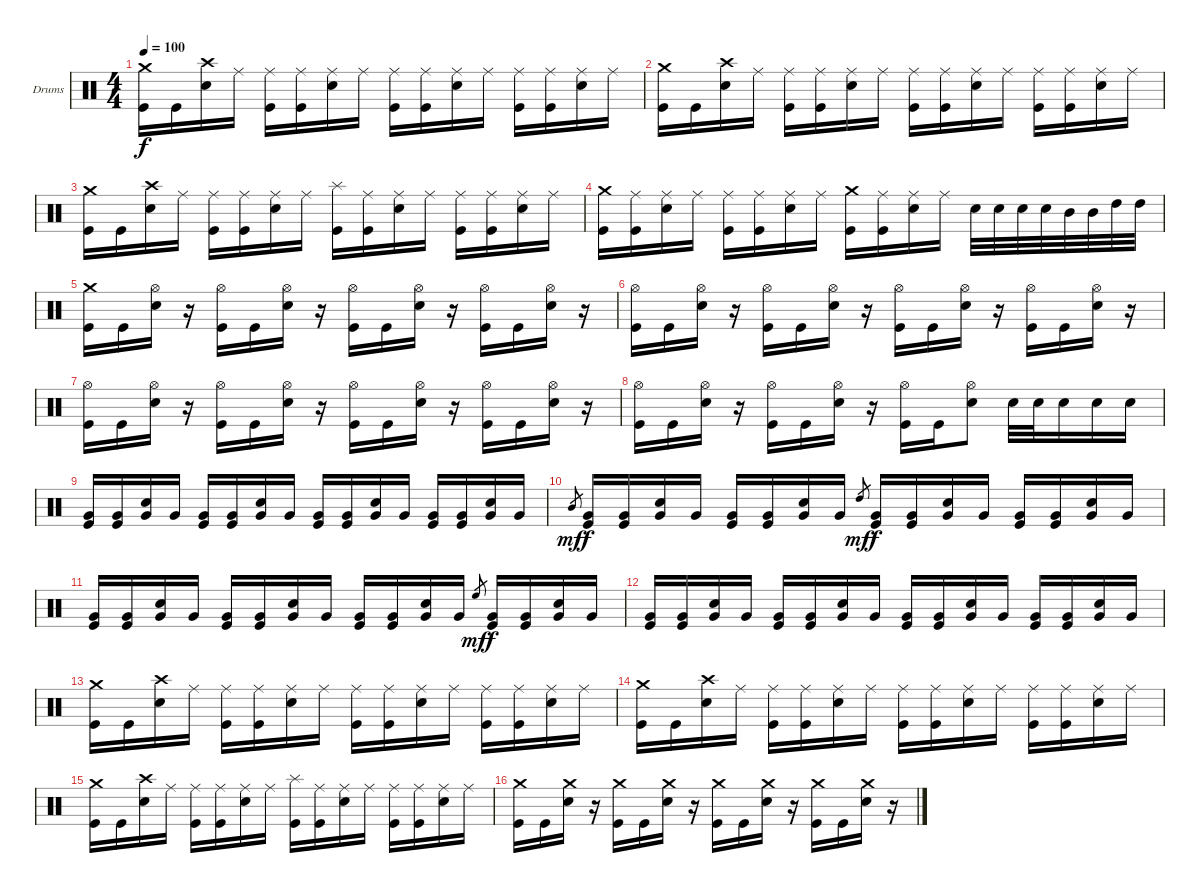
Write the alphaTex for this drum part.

\bracketExtendMode groupsimilarinstruments
\firstSystemTrackNameOrientation horizontal
\otherSystemsTrackNameOrientation horizontal
\track ("Drumkit" "Drums") {instrument percussion}
\staff {score}
\articulation defaults
\ts (4 4)
\tempo 100
\clef neutral
\ks c
("Crash medium (hit)" "Kick (hit)").16{dy f} "Kick (hit)".16 ("Crash high (hit)" "Snare (hit) 2").16 "Ride (middle)".16 ("Ride (middle)" "Kick (hit)").16 ("Ride (middle)" "Kick (hit)").16 ("Ride (middle)" "Snare (hit) 2").16 "Ride (middle)".16 ("Ride (middle)" "Kick (hit)").16 ("Ride (middle)" "Kick (hit)").16 ("Ride (middle)" "Snare (hit) 2").16 "Ride (middle)".16 ("Ride (middle)" "Kick (hit)").16 ("Ride (middle)" "Kick (hit)").16 ("Ride (middle)" "Snare (hit) 2").16 "Ride (middle)".16 |
("Crash medium (hit)" "Kick (hit)").16 "Kick (hit)".16 ("Crash high (hit)" "Snare (hit) 2").16 "Ride (middle)".16 ("Ride (middle)" "Kick (hit)").16 ("Ride (middle)" "Kick (hit)").16 ("Ride (middle)" "Snare (hit) 2").16 "Ride (middle)".16 ("Ride (middle)" "Kick (hit)").16 ("Ride (middle)" "Kick (hit)").16 ("Ride (middle)" "Snare (hit) 2").16 "Ride (middle)".16 ("Ride (middle)" "Kick (hit)").16 ("Ride (middle)" "Kick (hit)").16 ("Ride (middle)" "Snare (hit) 2").16 "Ride (middle)".16 |
("Crash medium (hit)" "Kick (hit)").16 "Kick (hit)".16 ("Crash high (hit)" "Snare (hit) 2").16 "Ride (middle)".16 ("Ride (middle)" "Kick (hit)").16 ("Ride (middle)" "Kick (hit)").16 ("Ride (middle)" "Snare (hit) 2").16 "Ride (middle)".16 ("Splash (hit)" "Kick (hit)").16 ("Ride (middle)" "Kick (hit)").16 ("Ride (middle)" "Snare (hit) 2").16 "Ride (middle)".16 ("Ride (middle)" "Kick (hit)").16 ("Ride (middle)" "Kick (hit)").16 ("Ride (middle)" "Snare (hit) 2").16 "Ride (middle)".16 |
("Crash medium (hit)" "Kick (hit)").16 ("Ride (middle)" "Kick (hit)").16 ("Ride (middle)" "Snare (hit) 2").16 "Ride (middle)".16 ("Ride (middle)" "Kick (hit)").16 ("Ride (middle)" "Kick (hit)").16 ("Ride (middle)" "Snare (hit) 2").16 "Ride (middle)".16 ("Crash medium (hit)" "Kick (hit)").16 ("Ride (middle)" "Kick (hit)").16 ("Ride (middle)" "Snare (hit) 2").16 "Ride (middle)".16 "Snare (hit) 2".32 "Snare (hit) 2".32 "Snare (hit) 2".32 "Snare (hit) 2".32 "Mid Tom (hit)".32 "Mid Tom (hit)".32 "High Tom (hit)".32 "High Tom (hit)".32 |
("Crash medium (hit)" "Kick (hit)").16 "Kick (hit)".16 ("Hi-Hat (open)" "Snare (hit) 2").16 r.16 ("Hi-Hat (open)" "Kick (hit)").16 "Kick (hit)".16 ("Hi-Hat (open)" "Snare (hit) 2").16 r.16 ("Hi-Hat (open)" "Kick (hit)").16 "Kick (hit)".16 ("Hi-Hat (open)" "Snare (hit) 2").16 r.16 ("Hi-Hat (open)" "Kick (hit)").16 "Kick (hit)".16 ("Hi-Hat (open)" "Snare (hit) 2").16 r.16 |
("Hi-Hat (open)" "Kick (hit)").16 "Kick (hit)".16 ("Hi-Hat (open)" "Snare (hit) 2").16 r.16 ("Hi-Hat (open)" "Kick (hit)").16 "Kick (hit)".16 ("Hi-Hat (open)" "Snare (hit) 2").16 r.16 ("Hi-Hat (open)" "Kick (hit)").16 "Kick (hit)".16 ("Hi-Hat (open)" "Snare (hit) 2").16 r.16 ("Hi-Hat (open)" "Kick (hit)").16 "Kick (hit)".16 ("Hi-Hat (open)" "Snare (hit) 2").16 r.16 |
("Hi-Hat (open)" "Kick (hit)").16 "Kick (hit)".16 ("Hi-Hat (open)" "Snare (hit) 2").16 r.16 ("Hi-Hat (open)" "Kick (hit)").16 "Kick (hit)".16 ("Hi-Hat (open)" "Snare (hit) 2").16 r.16 ("Hi-Hat (open)" "Kick (hit)").16 "Kick (hit)".16 ("Hi-Hat (open)" "Snare (hit) 2").16 r.16 ("Hi-Hat (open)" "Kick (hit)").16 "Kick (hit)".16 ("Hi-Hat (open)" "Snare (hit) 2").16 r.16 |
("Kick (hit)" "Hi-Hat (open)").16 "Kick (hit)".16 ("Snare (hit) 2" "Hi-Hat (open)").16 r.16 ("Hi-Hat (open)" "Kick (hit)").16 "Kick (hit)".16 ("Hi-Hat (open)" "Snare (hit) 2").16 r.16 ("Hi-Hat (open)" "Kick (hit)").16 "Kick (hit)".16 ("Hi-Hat (open)" "Snare (hit) 2").8 "Snare (hit) 2".32 "Snare (hit) 2".32 "Snare (hit) 2".16 "Snare (hit) 2".16 "Snare (hit) 2".16 |
("Kick (hit)" "Very Low Tom (hit)").16 ("Kick (hit)" "Very Low Tom (hit)").16 ("Snare (hit) 2" "Very Low Tom (hit)").16 "Very Low Tom (hit)".16 ("Kick (hit)" "Very Low Tom (hit)").16 ("Kick (hit)" "Very Low Tom (hit)").16 ("Snare (hit) 2" "Very Low Tom (hit)").16 "Very Low Tom (hit)".16 ("Kick (hit)" "Very Low Tom (hit)").16 ("Kick (hit)" "Very Low Tom (hit)").16 ("Snare (hit) 2" "Very Low Tom (hit)").16 "Very Low Tom (hit)".16 ("Kick (hit)" "Very Low Tom (hit)").16 ("Kick (hit)" "Very Low Tom (hit)").16 ("Snare (hit) 2" "Very Low Tom (hit)").16 "Very Low Tom (hit)".16 |
"Mid Tom (hit)".8{gr dy mf} ("Kick (hit)" "Very Low Tom (hit)").16{dy f} ("Kick (hit)" "Very Low Tom (hit)").16 ("Snare (hit) 2" "Very Low Tom (hit)").16 "Very Low Tom (hit)".16 ("Kick (hit)" "Very Low Tom (hit)").16 ("Kick (hit)" "Very Low Tom (hit)").16 ("Snare (hit) 2" "Very Low Tom (hit)").16 "Very Low Tom (hit)".16 "High Tom (hit)".8{gr dy mf} ("Kick (hit)" "Very Low Tom (hit)").16{dy f} ("Kick (hit)" "Very Low Tom (hit)").16 ("Snare (hit) 2" "Very Low Tom (hit)").16 "Very Low Tom (hit)".16 ("Kick (hit)" "Very Low Tom (hit)").16 ("Kick (hit)" "Very Low Tom (hit)").16 ("Snare (hit) 2" "Very Low Tom (hit)").16 "Very Low Tom (hit)".16 |
("Kick (hit)" "Very Low Tom (hit)").16 ("Kick (hit)" "Very Low Tom (hit)").16 ("Snare (hit) 2" "Very Low Tom (hit)").16 "Very Low Tom (hit)".16 ("Kick (hit)" "Very Low Tom (hit)").16 ("Kick (hit)" "Very Low Tom (hit)").16 ("Snare (hit) 2" "Very Low Tom (hit)").16 "Very Low Tom (hit)".16 ("Kick (hit)" "Very Low Tom (hit)").16 ("Kick (hit)" "Very Low Tom (hit)").16 ("Snare (hit) 2" "Very Low Tom (hit)").16 "Very Low Tom (hit)".16 "High Floor Tom (hit)".8{gr dy mf} ("Kick (hit)" "Very Low Tom (hit)").16{dy f} ("Kick (hit)" "Very Low Tom (hit)").16 ("Snare (hit) 2" "Very Low Tom (hit)").16 "Very Low Tom (hit)".16 |
("Kick (hit)" "Very Low Tom (hit)").16 ("Kick (hit)" "Very Low Tom (hit)").16 ("Snare (hit) 2" "Very Low Tom (hit)").16 "Very Low Tom (hit)".16 ("Kick (hit)" "Very Low Tom (hit)").16 ("Kick (hit)" "Very Low Tom (hit)").16 ("Snare (hit) 2" "Very Low Tom (hit)").16 "Very Low Tom (hit)".16 ("Kick (hit)" "Very Low Tom (hit)").16 ("Kick (hit)" "Very Low Tom (hit)").16 ("Snare (hit) 2" "Very Low Tom (hit)").16 "Very Low Tom (hit)".16 ("Kick (hit)" "Very Low Tom (hit)").16 ("Kick (hit)" "Very Low Tom (hit)").16 ("Snare (hit) 2" "Very Low Tom (hit)").16 "Very Low Tom (hit)".16 |
("Crash medium (hit)" "Kick (hit)").16 "Kick (hit)".16 ("Crash high (hit)" "Snare (hit) 2").16 "Ride (middle)".16 ("Ride (middle)" "Kick (hit)").16 ("Ride (middle)" "Kick (hit)").16 ("Ride (middle)" "Snare (hit) 2").16 "Ride (middle)".16 ("Ride (middle)" "Kick (hit)").16 ("Ride (middle)" "Kick (hit)").16 ("Ride (middle)" "Snare (hit) 2").16 "Ride (middle)".16 ("Ride (middle)" "Kick (hit)").16 ("Ride (middle)" "Kick (hit)").16 ("Ride (middle)" "Snare (hit) 2").16 "Ride (middle)".16 |
("Crash medium (hit)" "Kick (hit)").16 "Kick (hit)".16 ("Crash high (hit)" "Snare (hit) 2").16 "Ride (middle)".16 ("Ride (middle)" "Kick (hit)").16 ("Ride (middle)" "Kick (hit)").16 ("Ride (middle)" "Snare (hit) 2").16 "Ride (middle)".16 ("Ride (middle)" "Kick (hit)").16 ("Ride (middle)" "Kick (hit)").16 ("Ride (middle)" "Snare (hit) 2").16 "Ride (middle)".16 ("Ride (middle)" "Kick (hit)").16 ("Ride (middle)" "Kick (hit)").16 ("Ride (middle)" "Snare (hit) 2").16 "Ride (middle)".16 |
("Crash medium (hit)" "Kick (hit)").16 "Kick (hit)".16 ("Crash high (hit)" "Snare (hit) 2").16 "Ride (middle)".16 ("Ride (middle)" "Kick (hit)").16 ("Ride (middle)" "Kick (hit)").16 ("Ride (middle)" "Snare (hit) 2").16 "Ride (middle)".16 ("Splash (hit)" "Kick (hit)").16 ("Ride (middle)" "Kick (hit)").16 ("Ride (middle)" "Snare (hit) 2").16 "Ride (middle)".16 ("Ride (middle)" "Kick (hit)").16 ("Ride (middle)" "Kick (hit)").16 ("Ride (middle)" "Snare (hit) 2").16 "Ride (middle)".16 |
("Crash medium (hit)" "Kick (hit)").16 "Kick (hit)".16 ("Crash medium (hit)" "Snare (hit) 2").16 r.16 ("Crash medium (hit)" "Kick (hit)").16 "Kick (hit)".16 ("Crash medium (hit)" "Snare (hit) 2").16 r.16 ("Crash medium (hit)" "Kick (hit)").16 "Kick (hit)".16 ("Crash medium (hit)" "Snare (hit) 2").16 r.16 ("Crash medium (hit)" "Kick (hit)").16 "Kick (hit)".16 ("Crash medium (hit)" "Snare (hit) 2").16 r.16
